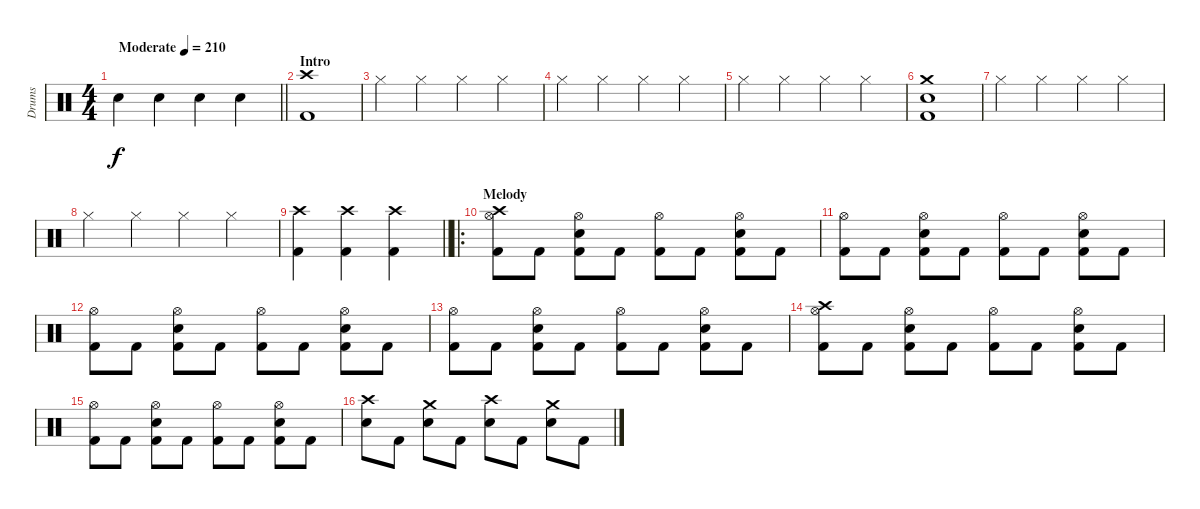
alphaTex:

\track ("Drums" "Drums") {instrument percussion}
\staff {score}
\articulation defaults
\ts (4 4)
\tempo (210 "Moderate")
\clef neutral
\barLineRight lightlight
\ks c "Snare (hit) 2".4{dy f} "Snare (hit) 2".4 "Snare (hit) 2".4 "Snare (hit) 2".4
|
\section ("" "Intro")
("Crash high (hit)" "Kick (hit) 2").1 |
"Hi-Hat (closed)".4 "Hi-Hat (closed)".4 "Hi-Hat (closed)".4 "Hi-Hat (closed)".4 |
"Hi-Hat (closed)".4 "Hi-Hat (closed)".4 "Hi-Hat (closed)".4 "Hi-Hat (closed)".4 |
"Hi-Hat (closed)".4 "Hi-Hat (closed)".4 "Hi-Hat (closed)".4 "Hi-Hat (closed)".4 |
("Crash medium (hit)" "Snare (hit) 2" "Kick (hit) 2").1 |
"Hi-Hat (closed)".4 "Hi-Hat (closed)".4 "Hi-Hat (closed)".4 "Hi-Hat (closed)".4 |
"Hi-Hat (closed)".4 "Hi-Hat (closed)".4 "Hi-Hat (closed)".4 "Hi-Hat (closed)".4 |
\barLineRight lightlight
("Crash high (hit)" "Kick (hit) 2").4 ("Crash high (hit)" "Kick (hit) 2").4 ("Crash high (hit)" "Kick (hit) 2").4 |
\ro
\section ("" "Melody")
("Crash high (hit)" "Hi-Hat (open)" "Kick (hit) 2").8 "Kick (hit) 2".8 ("Hi-Hat (open)" "Snare (hit) 2" "Kick (hit) 2").8 "Kick (hit) 2".8 ("Hi-Hat (open)" "Kick (hit) 2").8 "Kick (hit) 2".8 ("Hi-Hat (open)" "Snare (hit) 2" "Kick (hit) 2").8 "Kick (hit) 2".8 |
("Hi-Hat (open)" "Kick (hit) 2").8 "Kick (hit) 2".8 ("Hi-Hat (open)" "Snare (hit) 2" "Kick (hit) 2").8 "Kick (hit) 2".8 ("Hi-Hat (open)" "Kick (hit) 2").8 "Kick (hit) 2".8 ("Hi-Hat (open)" "Snare (hit) 2" "Kick (hit) 2").8 "Kick (hit) 2".8 |
("Hi-Hat (open)" "Kick (hit) 2").8 "Kick (hit) 2".8 ("Hi-Hat (open)" "Snare (hit) 2" "Kick (hit) 2").8 "Kick (hit) 2".8 ("Hi-Hat (open)" "Kick (hit) 2").8 "Kick (hit) 2".8 ("Hi-Hat (open)" "Snare (hit) 2" "Kick (hit) 2").8 "Kick (hit) 2".8 |
("Hi-Hat (open)" "Kick (hit) 2").8 "Kick (hit) 2".8 ("Hi-Hat (open)" "Snare (hit) 2" "Kick (hit) 2").8 "Kick (hit) 2".8 ("Hi-Hat (open)" "Kick (hit) 2").8 "Kick (hit) 2".8 ("Hi-Hat (open)" "Snare (hit) 2" "Kick (hit) 2").8 "Kick (hit) 2".8 |
("Crash high (hit)" "Hi-Hat (open)" "Kick (hit) 2").8 "Kick (hit) 2".8 ("Hi-Hat (open)" "Snare (hit) 2" "Kick (hit) 2").8 "Kick (hit) 2".8 ("Hi-Hat (open)" "Kick (hit) 2").8 "Kick (hit) 2".8 ("Hi-Hat (open)" "Snare (hit) 2" "Kick (hit) 2").8 "Kick (hit) 2".8 |
("Hi-Hat (open)" "Kick (hit) 2").8 "Kick (hit) 2".8 ("Hi-Hat (open)" "Snare (hit) 2" "Kick (hit) 2").8 "Kick (hit) 2".8 ("Hi-Hat (open)" "Kick (hit) 2").8 "Kick (hit) 2".8 ("Hi-Hat (open)" "Snare (hit) 2" "Kick (hit) 2").8 "Kick (hit) 2".8 |
("Crash high (hit)" "Snare (hit) 2").8 "Kick (hit) 2".8 ("Crash medium (hit)" "Snare (hit) 2").8 "Kick (hit) 2".8 ("Crash high (hit)" "Snare (hit) 2").8 "Kick (hit) 2".8 ("Crash medium (hit)" "Snare (hit) 2").8 "Kick (hit) 2".8
